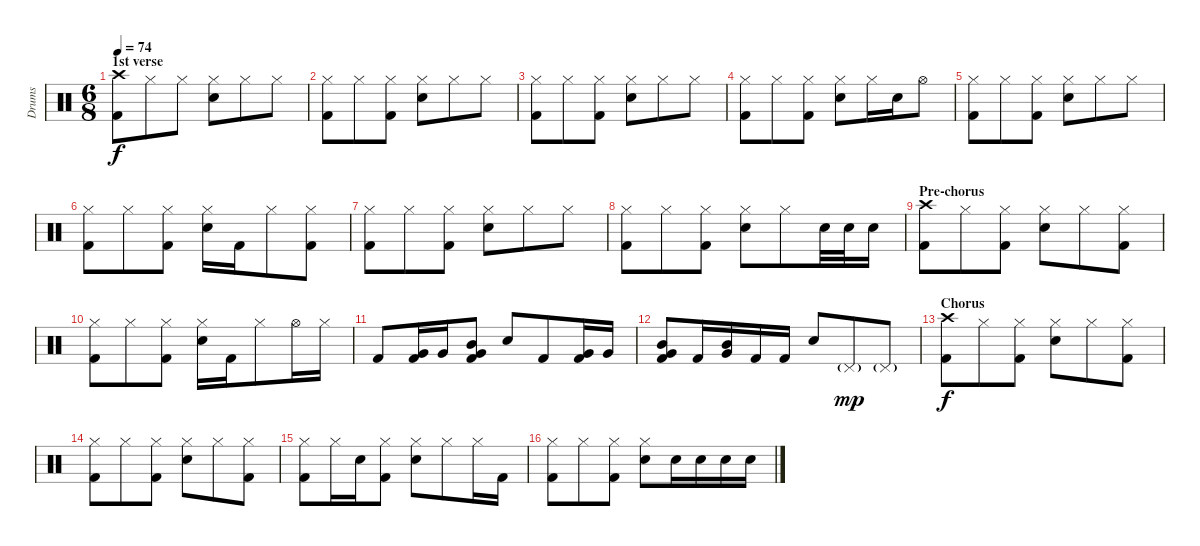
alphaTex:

\track ("Drums" "Drums") {instrument percussion}
\staff {score}
\articulation defaults
\ts (6 8)
\section ("" "1st verse")
\tempo 74
\clef neutral
\ks c
("Crash high (hit)" "Kick (hit) 2").8{dy f} "Hi-Hat (closed)".8 "Hi-Hat (closed)".8 ("Hi-Hat (closed)" "Electric Snare (hit)").8 "Hi-Hat (closed)".8 "Hi-Hat (closed)".8 |
("Hi-Hat (closed)" "Kick (hit) 2").8 "Hi-Hat (closed)".8 ("Hi-Hat (closed)" "Kick (hit) 2").8 ("Hi-Hat (closed)" "Electric Snare (hit)").8 "Hi-Hat (closed)".8 "Hi-Hat (closed)".8 |
("Hi-Hat (closed)" "Kick (hit) 2").8 "Hi-Hat (closed)".8 ("Hi-Hat (closed)" "Kick (hit) 2").8 ("Hi-Hat (closed)" "Electric Snare (hit)").8 "Hi-Hat (closed)".8 "Hi-Hat (closed)".8 |
("Hi-Hat (closed)" "Kick (hit) 2").8 "Hi-Hat (closed)".8 ("Hi-Hat (closed)" "Kick (hit) 2").8 ("Hi-Hat (closed)" "Electric Snare (hit)").8 "Hi-Hat (closed)".16 "Electric Snare (hit)".16 "Hi-Hat (open)".8 |
("Hi-Hat (closed)" "Kick (hit) 2").8 "Hi-Hat (closed)".8 ("Hi-Hat (closed)" "Kick (hit) 2").8 ("Hi-Hat (closed)" "Electric Snare (hit)").8 "Hi-Hat (closed)".8 "Hi-Hat (closed)".8 |
("Hi-Hat (closed)" "Kick (hit) 2").8 "Hi-Hat (closed)".8 ("Hi-Hat (closed)" "Kick (hit) 2").8 ("Hi-Hat (closed)" "Electric Snare (hit)").16 "Kick (hit) 2".16 "Hi-Hat (closed)".8 ("Hi-Hat (closed)" "Kick (hit) 2").8 |
("Hi-Hat (closed)" "Kick (hit) 2").8 "Hi-Hat (closed)".8 ("Hi-Hat (closed)" "Kick (hit) 2").8 ("Hi-Hat (closed)" "Electric Snare (hit)").8 "Hi-Hat (closed)".8 "Hi-Hat (closed)".8 |
("Hi-Hat (closed)" "Kick (hit) 2").8 "Hi-Hat (closed)".8 ("Hi-Hat (closed)" "Kick (hit) 2").8 ("Hi-Hat (closed)" "Electric Snare (hit)").8 "Hi-Hat (closed)".8 "Electric Snare (hit)".32 "Electric Snare (hit)".32 "Electric Snare (hit)".16 |
\section ("" "Pre-chorus")
("Crash high (hit)" "Kick (hit) 2").8 "Hi-Hat (closed)".8 ("Hi-Hat (closed)" "Kick (hit) 2").8 ("Hi-Hat (closed)" "Electric Snare (hit)").8 "Hi-Hat (closed)".8 ("Hi-Hat (closed)" "Kick (hit) 2").8 |
("Hi-Hat (closed)" "Kick (hit) 2").8 "Hi-Hat (closed)".8 ("Hi-Hat (closed)" "Kick (hit) 2").8 ("Hi-Hat (closed)" "Electric Snare (hit)").16 "Kick (hit) 2".16 "Hi-Hat (closed)".8 "Hi-Hat (open)".16 "Hi-Hat (closed)".16 |
"Kick (hit) 2".8 ("Very Low Tom (hit)" "Kick (hit) 2").16 "Very Low Tom (hit)".16 ("Mid Tom (hit)" "Very Low Tom (hit)" "Kick (hit) 2").8 "Electric Snare (hit)".8 "Kick (hit) 2".8 ("Very Low Tom (hit)" "Kick (hit) 2").16 "Very Low Tom (hit)".16 |
("Mid Tom (hit)" "Very Low Tom (hit)" "Kick (hit) 2").8 "Kick (hit) 2".16 ("Mid Tom (hit)" "Very Low Tom (hit)").16 "Kick (hit) 2".16 "Kick (hit) 2".16 "Electric Snare (hit)".8 "Pedal Hi-Hat (hit)"{g}.8{dy mp} "Pedal Hi-Hat (hit)"{g}.8 |
\section ("" "Chorus")
("Crash high (hit)" "Kick (hit) 2").8{dy f} "Hi-Hat (closed)".8 ("Hi-Hat (closed)" "Kick (hit) 2").8 ("Hi-Hat (closed)" "Electric Snare (hit)").8 "Hi-Hat (closed)".8 ("Hi-Hat (closed)" "Kick (hit) 2").8 |
("Hi-Hat (closed)" "Kick (hit) 2").8 "Hi-Hat (closed)".8 ("Hi-Hat (closed)" "Kick (hit) 2").8 ("Hi-Hat (closed)" "Electric Snare (hit)").8 "Hi-Hat (closed)".8 ("Hi-Hat (closed)" "Kick (hit) 2").8 |
("Hi-Hat (closed)" "Kick (hit) 2").8 "Hi-Hat (closed)".16 "Electric Snare (hit)".16 ("Hi-Hat (closed)" "Kick (hit) 2").8 ("Hi-Hat (closed)" "Electric Snare (hit)").8 "Hi-Hat (closed)".8 "Hi-Hat (closed)".16 "Kick (hit) 2".16 |
("Hi-Hat (closed)" "Kick (hit) 2").8 "Hi-Hat (closed)".8 ("Hi-Hat (closed)" "Kick (hit) 2").8 ("Hi-Hat (closed)" "Electric Snare (hit)").8 "Electric Snare (hit)".16 "Electric Snare (hit)".16 "Electric Snare (hit)".16 "Electric Snare (hit)".16
